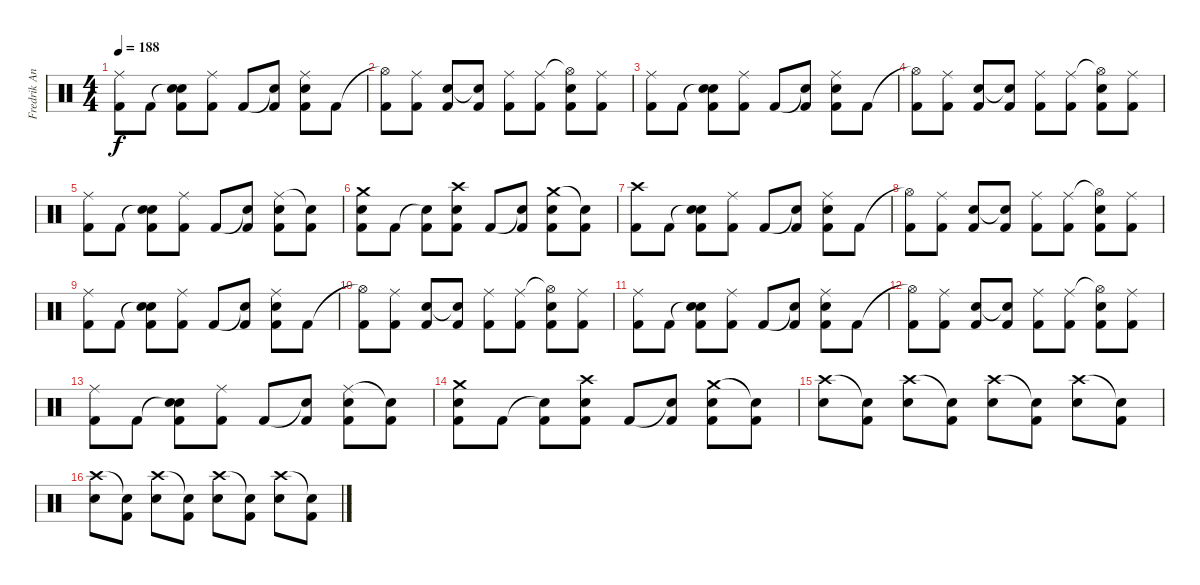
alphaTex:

\track ("Fredrik Andersson" "Fredrik An") {instrument percussion}
\staff {score}
\articulation defaults
\ts (4 4)
\tempo 188
\clef neutral
\ks c
("Ride (middle)" "Kick (hit) 2").8{dy f} "Kick (hit) 2".8 ("Snare (hit)"{t} "Snare (hit) 2" "Kick (hit) 2").8 ("Ride (middle)" "Kick (hit) 2").8 "Kick (hit) 2".8 ("Snare (hit)"{t} "Kick (hit) 2").8 ("Ride (middle)" "Snare (hit) 2" "Kick (hit) 2").8 "Kick (hit) 2".8 |
("Hi-Hat (open)"{t} "Kick (hit) 2").8 ("Ride (middle)" "Kick (hit) 2").8 ("Snare (hit) 2" "Kick (hit) 2").8 ("Snare (hit)"{t} "Kick (hit) 2").8 ("Ride (middle)" "Kick (hit) 2").8 ("Ride (middle)" "Kick (hit) 2").8 ("Hi-Hat (open)"{t} "Snare (hit) 2" "Kick (hit) 2").8 ("Ride (middle)" "Kick (hit) 2").8 |
("Ride (middle)" "Kick (hit) 2").8 "Kick (hit) 2".8 ("Snare (hit)"{t} "Snare (hit) 2" "Kick (hit) 2").8 ("Ride (middle)" "Kick (hit) 2").8 "Kick (hit) 2".8 ("Snare (hit)"{t} "Kick (hit) 2").8 ("Ride (middle)" "Snare (hit) 2" "Kick (hit) 2").8 "Kick (hit) 2".8 |
("Hi-Hat (open)"{t} "Kick (hit) 2").8 ("Ride (middle)" "Kick (hit) 2").8 ("Snare (hit) 2" "Kick (hit) 2").8 ("Snare (hit)"{t} "Kick (hit) 2").8 ("Ride (middle)" "Kick (hit) 2").8 ("Ride (middle)" "Kick (hit) 2").8 ("Hi-Hat (open)"{t} "Snare (hit) 2" "Kick (hit) 2").8 ("Ride (middle)" "Kick (hit) 2").8 |
("Ride (middle)" "Kick (hit) 2").8 "Kick (hit) 2".8 ("Snare (hit)"{t} "Snare (hit) 2" "Kick (hit) 2").8 ("Ride (middle)" "Kick (hit) 2").8 "Kick (hit) 2".8 ("Snare (hit)"{t} "Kick (hit) 2").8 ("Ride (middle)" "Snare (hit) 2" "Kick (hit) 2").8 ("Snare (hit)"{t} "Kick (hit) 2").8 |
("Crash medium (hit)" "Snare (hit) 2" "Kick (hit) 2").8 "Kick (hit) 2".8 ("Snare (hit)"{t} "Kick (hit) 2").8 ("Crash high (hit)" "Snare (hit) 2" "Kick (hit) 2").8 "Kick (hit) 2".8 ("Snare (hit)"{t} "Kick (hit) 2").8 ("Crash medium (hit)" "Snare (hit) 2" "Kick (hit) 2").8 ("Snare (hit)"{t} "Kick (hit) 2").8 |
("Crash high (hit)" "Kick (hit) 2").8 "Kick (hit) 2".8 ("Snare (hit)"{t} "Snare (hit) 2" "Kick (hit) 2").8 ("Ride (middle)" "Kick (hit) 2").8 "Kick (hit) 2".8 ("Snare (hit)"{t} "Kick (hit) 2").8 ("Ride (middle)" "Snare (hit) 2" "Kick (hit) 2").8 "Kick (hit) 2".8 |
("Hi-Hat (open)"{t} "Kick (hit) 2").8 ("Ride (middle)" "Kick (hit) 2").8 ("Snare (hit) 2" "Kick (hit) 2").8 ("Snare (hit)"{t} "Kick (hit) 2").8 ("Ride (middle)" "Kick (hit) 2").8 ("Ride (middle)" "Kick (hit) 2").8 ("Hi-Hat (open)"{t} "Snare (hit) 2" "Kick (hit) 2").8 ("Ride (middle)" "Kick (hit) 2").8 |
("Ride (middle)" "Kick (hit) 2").8 "Kick (hit) 2".8 ("Snare (hit)"{t} "Snare (hit) 2" "Kick (hit) 2").8 ("Ride (middle)" "Kick (hit) 2").8 "Kick (hit) 2".8 ("Snare (hit)"{t} "Kick (hit) 2").8 ("Ride (middle)" "Snare (hit) 2" "Kick (hit) 2").8 "Kick (hit) 2".8 |
("Hi-Hat (open)"{t} "Kick (hit) 2").8 ("Ride (middle)" "Kick (hit) 2").8 ("Snare (hit) 2" "Kick (hit) 2").8 ("Snare (hit)"{t} "Kick (hit) 2").8 ("Ride (middle)" "Kick (hit) 2").8 ("Ride (middle)" "Kick (hit) 2").8 ("Hi-Hat (open)"{t} "Snare (hit) 2" "Kick (hit) 2").8 ("Ride (middle)" "Kick (hit) 2").8 |
("Ride (middle)" "Kick (hit) 2").8 "Kick (hit) 2".8 ("Snare (hit)"{t} "Snare (hit) 2" "Kick (hit) 2").8 ("Ride (middle)" "Kick (hit) 2").8 "Kick (hit) 2".8 ("Snare (hit)"{t} "Kick (hit) 2").8 ("Ride (middle)" "Snare (hit) 2" "Kick (hit) 2").8 "Kick (hit) 2".8 |
("Hi-Hat (open)"{t} "Kick (hit) 2").8 ("Ride (middle)" "Kick (hit) 2").8 ("Snare (hit) 2" "Kick (hit) 2").8 ("Snare (hit)"{t} "Kick (hit) 2").8 ("Ride (middle)" "Kick (hit) 2").8 ("Ride (middle)" "Kick (hit) 2").8 ("Hi-Hat (open)"{t} "Snare (hit) 2" "Kick (hit) 2").8 ("Ride (middle)" "Kick (hit) 2").8 |
("Ride (middle)" "Kick (hit) 2").8 "Kick (hit) 2".8 ("Snare (hit)"{t} "Snare (hit) 2" "Kick (hit) 2").8 ("Ride (middle)" "Kick (hit) 2").8 "Kick (hit) 2".8 ("Snare (hit)"{t} "Kick (hit) 2").8 ("Ride (middle)" "Snare (hit) 2" "Kick (hit) 2").8 ("Snare (hit)"{t} "Kick (hit) 2").8 |
("Crash medium (hit)" "Snare (hit) 2" "Kick (hit) 2").8 "Kick (hit) 2".8 ("Snare (hit)"{t} "Kick (hit) 2").8 ("Crash high (hit)" "Snare (hit) 2" "Kick (hit) 2").8 "Kick (hit) 2".8 ("Snare (hit)"{t} "Kick (hit) 2").8 ("Crash medium (hit)" "Snare (hit) 2" "Kick (hit) 2").8 ("Snare (hit)"{t} "Kick (hit) 2").8 |
("Crash high (hit)" "Snare (hit) 2").8 ("Snare (hit)"{t} "Kick (hit) 2").8 ("Crash high (hit)" "Snare (hit) 2").8 ("Snare (hit)"{t} "Kick (hit) 2").8 ("Crash high (hit)" "Snare (hit) 2").8 ("Snare (hit)"{t} "Kick (hit) 2").8 ("Crash high (hit)" "Snare (hit) 2").8 ("Snare (hit)"{t} "Kick (hit) 2").8 |
("Crash high (hit)" "Snare (hit) 2").8 ("Snare (hit)"{t} "Kick (hit) 2").8 ("Crash high (hit)" "Snare (hit) 2").8 ("Snare (hit)"{t} "Kick (hit) 2").8 ("Crash high (hit)" "Snare (hit) 2").8 ("Snare (hit)"{t} "Kick (hit) 2").8 ("Crash high (hit)" "Snare (hit) 2").8 ("Snare (hit)"{t} "Kick (hit) 2").8
